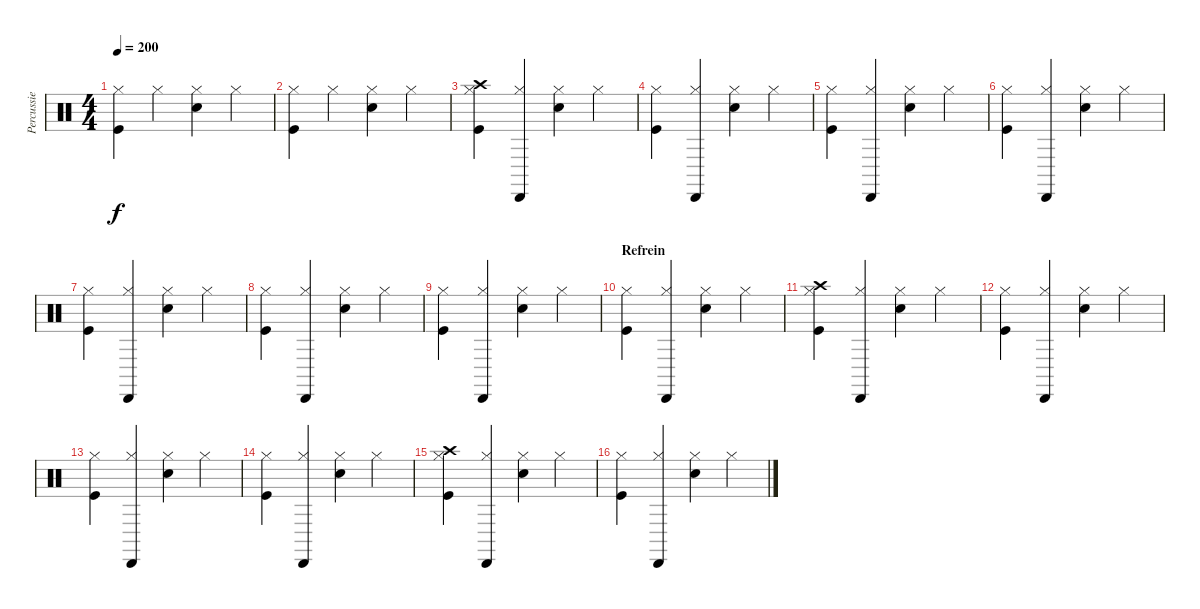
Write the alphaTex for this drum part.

\track ("Percussie" "Percussie") {instrument percussion}
\staff {score}
\articulation defaults
\ts (4 4)
\tempo 200
\clef neutral
\ks c
("Hi-Hat (closed)" "Kick (hit)").4{dy f} "Hi-Hat (closed)".4 ("Electric Snare (hit)" "Hi-Hat (closed)").4 "Hi-Hat (closed)".4 |
("Hi-Hat (closed)" "Kick (hit)").4 "Hi-Hat (closed)".4 ("Electric Snare (hit)" "Hi-Hat (closed)").4 "Hi-Hat (closed)".4 |
("Crash high (hit)" "Hi-Hat (closed)" "Kick (hit)").4 ("Cabasa (hit)" "Hi-Hat (closed)").4 ("Electric Snare (hit)" "Hi-Hat (closed)").4 "Hi-Hat (closed)".4 |
("Hi-Hat (closed)" "Kick (hit)").4 ("Cabasa (hit)" "Hi-Hat (closed)").4 ("Electric Snare (hit)" "Hi-Hat (closed)").4 "Hi-Hat (closed)".4 |
("Hi-Hat (closed)" "Kick (hit)").4 ("Cabasa (hit)" "Hi-Hat (closed)").4 ("Electric Snare (hit)" "Hi-Hat (closed)").4 "Hi-Hat (closed)".4 |
("Hi-Hat (closed)" "Kick (hit)").4 ("Cabasa (hit)" "Hi-Hat (closed)").4 ("Electric Snare (hit)" "Hi-Hat (closed)").4 "Hi-Hat (closed)".4 |
("Hi-Hat (closed)" "Kick (hit)").4 ("Cabasa (hit)" "Hi-Hat (closed)").4 ("Electric Snare (hit)" "Hi-Hat (closed)").4 "Hi-Hat (closed)".4 |
("Hi-Hat (closed)" "Kick (hit)").4 ("Cabasa (hit)" "Hi-Hat (closed)").4 ("Electric Snare (hit)" "Hi-Hat (closed)").4 "Hi-Hat (closed)".4 |
("Hi-Hat (closed)" "Kick (hit)").4 ("Cabasa (hit)" "Hi-Hat (closed)").4 ("Electric Snare (hit)" "Hi-Hat (closed)").4 "Hi-Hat (closed)".4 |
\section ("" "Refrein")
("Hi-Hat (closed)" "Kick (hit)").4 ("Cabasa (hit)" "Hi-Hat (closed)").4 ("Electric Snare (hit)" "Hi-Hat (closed)").4 "Hi-Hat (closed)".4 |
("Crash high (hit)" "Hi-Hat (closed)" "Kick (hit)").4 ("Cabasa (hit)" "Hi-Hat (closed)").4 ("Electric Snare (hit)" "Hi-Hat (closed)").4 "Hi-Hat (closed)".4 |
("Hi-Hat (closed)" "Kick (hit)").4 ("Cabasa (hit)" "Hi-Hat (closed)").4 ("Electric Snare (hit)" "Hi-Hat (closed)").4 "Hi-Hat (closed)".4 |
("Hi-Hat (closed)" "Kick (hit)").4 ("Cabasa (hit)" "Hi-Hat (closed)").4 ("Electric Snare (hit)" "Hi-Hat (closed)").4 "Hi-Hat (closed)".4 |
("Hi-Hat (closed)" "Kick (hit)").4 ("Cabasa (hit)" "Hi-Hat (closed)").4 ("Electric Snare (hit)" "Hi-Hat (closed)").4 "Hi-Hat (closed)".4 |
("Crash high (hit)" "Hi-Hat (closed)" "Kick (hit)").4 ("Cabasa (hit)" "Hi-Hat (closed)").4 ("Electric Snare (hit)" "Hi-Hat (closed)").4 "Hi-Hat (closed)".4 |
("Hi-Hat (closed)" "Kick (hit)").4 ("Cabasa (hit)" "Hi-Hat (closed)").4 ("Electric Snare (hit)" "Hi-Hat (closed)").4 "Hi-Hat (closed)".4
